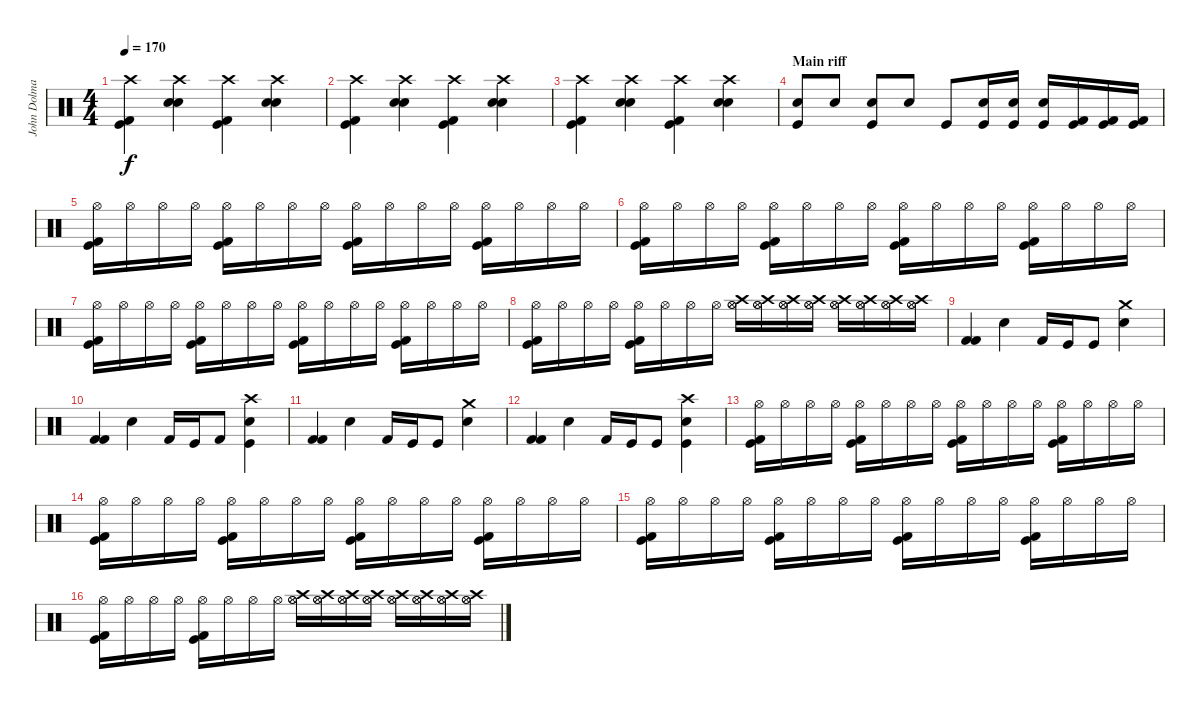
\track ("John Dolmayan" "John Dolma") {instrument percussion}
\staff {score}
\articulation defaults
\ts (4 4)
\tempo 170
\clef neutral
\ks c
("Crash high (hit)" "Kick (hit) 2" "Kick (hit)").4{dy f} ("Crash high (hit)" "Snare (hit) 2" "Electric Snare (hit)").4 ("Crash high (hit)" "Kick (hit) 2" "Kick (hit)").4 ("Crash high (hit)" "Snare (hit) 2" "Electric Snare (hit)").4 |
("Crash high (hit)" "Kick (hit) 2" "Kick (hit)").4 ("Crash high (hit)" "Snare (hit) 2" "Electric Snare (hit)").4 ("Crash high (hit)" "Kick (hit) 2" "Kick (hit)").4 ("Crash high (hit)" "Snare (hit) 2" "Electric Snare (hit)").4 |
("Crash high (hit)" "Kick (hit) 2" "Kick (hit)").4 ("Crash high (hit)" "Snare (hit) 2" "Electric Snare (hit)").4 ("Crash high (hit)" "Kick (hit) 2" "Kick (hit)").4 ("Crash high (hit)" "Snare (hit) 2" "Electric Snare (hit)").4 |
\section ("" "Main riff")
("Electric Snare (hit)" "Kick (hit)").8 "Snare (hit) 2".8 ("Electric Snare (hit)" "Kick (hit)").8 "Snare (hit) 2".8 "Kick (hit)".8 ("Snare (hit) 2" "Kick (hit)").16 ("Snare (hit) 2" "Kick (hit)").16 ("Electric Snare (hit)" "Kick (hit)").16 ("Kick (hit)" "Kick (hit) 2").16 ("Kick (hit)" "Kick (hit) 2").16 ("Kick (hit)" "Kick (hit) 2").16 |
("Kick (hit) 2" "Kick (hit)" "Hi-Hat (open)").16 "Hi-Hat (open)".16 "Hi-Hat (open)".16 "Hi-Hat (open)".16 ("Kick (hit) 2" "Kick (hit)" "Hi-Hat (open)").16 "Hi-Hat (open)".16 "Hi-Hat (open)".16 "Hi-Hat (open)".16 ("Kick (hit) 2" "Kick (hit)" "Hi-Hat (open)").16 "Hi-Hat (open)".16 "Hi-Hat (open)".16 "Hi-Hat (open)".16 ("Kick (hit)" "Kick (hit) 2" "Hi-Hat (open)").16 "Hi-Hat (open)".16 "Hi-Hat (open)".16 "Hi-Hat (open)".16 |
("Kick (hit) 2" "Kick (hit)" "Hi-Hat (open)").16 "Hi-Hat (open)".16 "Hi-Hat (open)".16 "Hi-Hat (open)".16 ("Kick (hit) 2" "Kick (hit)" "Hi-Hat (open)").16 "Hi-Hat (open)".16 "Hi-Hat (open)".16 "Hi-Hat (open)".16 ("Kick (hit) 2" "Kick (hit)" "Hi-Hat (open)").16 "Hi-Hat (open)".16 "Hi-Hat (open)".16 "Hi-Hat (open)".16 ("Kick (hit) 2" "Kick (hit)" "Hi-Hat (open)").16 "Hi-Hat (open)".16 "Hi-Hat (open)".16 "Hi-Hat (open)".16 |
("Kick (hit) 2" "Kick (hit)" "Hi-Hat (open)").16 "Hi-Hat (open)".16 "Hi-Hat (open)".16 "Hi-Hat (open)".16 ("Kick (hit) 2" "Kick (hit)" "Hi-Hat (open)").16 "Hi-Hat (open)".16 "Hi-Hat (open)".16 "Hi-Hat (open)".16 ("Kick (hit) 2" "Kick (hit)" "Hi-Hat (open)").16 "Hi-Hat (open)".16 "Hi-Hat (open)".16 "Hi-Hat (open)".16 ("Kick (hit)" "Kick (hit) 2" "Hi-Hat (open)").16 "Hi-Hat (open)".16 "Hi-Hat (open)".16 "Hi-Hat (open)".16 |
("Kick (hit) 2" "Kick (hit)" "Hi-Hat (open)").16 "Hi-Hat (open)".16 "Hi-Hat (open)".16 "Hi-Hat (open)".16 ("Kick (hit) 2" "Kick (hit)" "Hi-Hat (open)").16 "Hi-Hat (open)".16 "Hi-Hat (open)".16 "Hi-Hat (open)".16 ("Crash high (hit)" "Hi-Hat (open)" "Hi-Hat (open)").16 ("Crash high (hit)" "Hi-Hat (open)" "Hi-Hat (open)").16 ("Crash high (hit)" "Hi-Hat (open)" "Hi-Hat (open)").16 ("Crash high (hit)" "Hi-Hat (open)" "Hi-Hat (open)").16 ("Crash high (hit)" "Hi-Hat (open)" "Hi-Hat (open)").16 ("Crash high (hit)" "Hi-Hat (open)" "Hi-Hat (open)").16 ("Crash high (hit)" "Hi-Hat (open)" "Hi-Hat (open)").16 ("Crash high (hit)" "Hi-Hat (open)" "Hi-Hat (open)").16 |
("Kick (hit) 2" "Kick (hit) 2").4 "Snare (hit) 2".4 "Kick (hit) 2".16 "Kick (hit)".16 "Kick (hit)".8 ("Crash medium (hit)" "Snare (hit) 2").4 |
("Kick (hit) 2" "Kick (hit) 2").4 "Snare (hit) 2".4 "Kick (hit) 2".16 "Kick (hit)".16 "Kick (hit) 2".8 ("Crash high (hit)" "Electric Snare (hit)" "Kick (hit)").4 |
("Kick (hit) 2" "Kick (hit) 2").4 "Snare (hit) 2".4 "Kick (hit) 2".16 "Kick (hit)".16 "Kick (hit)".8 ("Crash medium (hit)" "Snare (hit) 2").4 |
("Kick (hit) 2" "Kick (hit) 2").4 "Snare (hit) 2".4 "Kick (hit) 2".16 "Kick (hit)".16 "Kick (hit)".8 ("Crash high (hit)" "Electric Snare (hit)" "Kick (hit)").4 |
("Kick (hit) 2" "Kick (hit)" "Hi-Hat (open)").16 "Hi-Hat (open)".16 "Hi-Hat (open)".16 "Hi-Hat (open)".16 ("Kick (hit) 2" "Kick (hit)" "Hi-Hat (open)").16 "Hi-Hat (open)".16 "Hi-Hat (open)".16 "Hi-Hat (open)".16 ("Kick (hit) 2" "Kick (hit)" "Hi-Hat (open)").16 "Hi-Hat (open)".16 "Hi-Hat (open)".16 "Hi-Hat (open)".16 ("Kick (hit)" "Kick (hit) 2" "Hi-Hat (open)").16 "Hi-Hat (open)".16 "Hi-Hat (open)".16 "Hi-Hat (open)".16 |
("Kick (hit) 2" "Kick (hit)" "Hi-Hat (open)").16 "Hi-Hat (open)".16 "Hi-Hat (open)".16 "Hi-Hat (open)".16 ("Kick (hit) 2" "Kick (hit)" "Hi-Hat (open)").16 "Hi-Hat (open)".16 "Hi-Hat (open)".16 "Hi-Hat (open)".16 ("Kick (hit) 2" "Kick (hit)" "Hi-Hat (open)").16 "Hi-Hat (open)".16 "Hi-Hat (open)".16 "Hi-Hat (open)".16 ("Kick (hit) 2" "Kick (hit)" "Hi-Hat (open)").16 "Hi-Hat (open)".16 "Hi-Hat (open)".16 "Hi-Hat (open)".16 |
("Kick (hit) 2" "Kick (hit)" "Hi-Hat (open)").16 "Hi-Hat (open)".16 "Hi-Hat (open)".16 "Hi-Hat (open)".16 ("Kick (hit) 2" "Kick (hit)" "Hi-Hat (open)").16 "Hi-Hat (open)".16 "Hi-Hat (open)".16 "Hi-Hat (open)".16 ("Kick (hit) 2" "Kick (hit)" "Hi-Hat (open)").16 "Hi-Hat (open)".16 "Hi-Hat (open)".16 "Hi-Hat (open)".16 ("Kick (hit)" "Kick (hit) 2" "Hi-Hat (open)").16 "Hi-Hat (open)".16 "Hi-Hat (open)".16 "Hi-Hat (open)".16 |
("Kick (hit) 2" "Kick (hit)" "Hi-Hat (open)").16 "Hi-Hat (open)".16 "Hi-Hat (open)".16 "Hi-Hat (open)".16 ("Kick (hit) 2" "Kick (hit)" "Hi-Hat (open)").16 "Hi-Hat (open)".16 "Hi-Hat (open)".16 "Hi-Hat (open)".16 ("Crash high (hit)" "Hi-Hat (open)" "Hi-Hat (open)").16 ("Crash high (hit)" "Hi-Hat (open)" "Hi-Hat (open)").16 ("Crash high (hit)" "Hi-Hat (open)" "Hi-Hat (open)").16 ("Crash high (hit)" "Hi-Hat (open)" "Hi-Hat (open)").16 ("Crash high (hit)" "Hi-Hat (open)" "Hi-Hat (open)").16 ("Crash high (hit)" "Hi-Hat (open)" "Hi-Hat (open)").16 ("Crash high (hit)" "Hi-Hat (open)" "Hi-Hat (open)").16 ("Crash high (hit)" "Hi-Hat (open)" "Hi-Hat (open)").16
